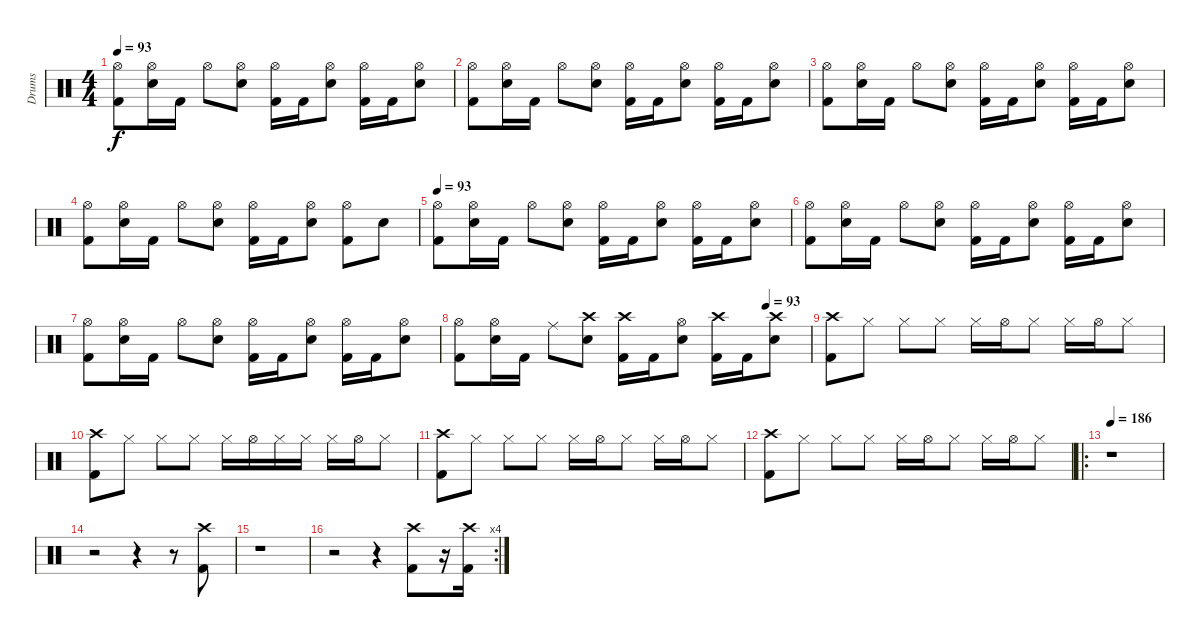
\track ("Drums" "Drums") {instrument percussion}
\staff {score}
\articulation defaults
\ts (4 4)
\tempo 93
\clef neutral
\ks c
("Hi-Hat (open)" "Kick (hit) 2").8{dy f} ("Hi-Hat (open)" "Snare (hit) 2").16 "Kick (hit) 2".16 "Hi-Hat (open)".8 ("Hi-Hat (open)" "Snare (hit) 2").8 ("Hi-Hat (open)" "Kick (hit) 2").16 "Kick (hit) 2".16 ("Hi-Hat (open)" "Snare (hit) 2").8 ("Hi-Hat (open)" "Kick (hit) 2").16 "Kick (hit) 2".16 ("Hi-Hat (open)" "Snare (hit) 2").8 |
("Hi-Hat (open)" "Kick (hit) 2").8 ("Hi-Hat (open)" "Snare (hit) 2").16 "Kick (hit) 2".16 "Hi-Hat (open)".8 ("Hi-Hat (open)" "Snare (hit) 2").8 ("Hi-Hat (open)" "Kick (hit) 2").16 "Kick (hit) 2".16 ("Hi-Hat (open)" "Snare (hit) 2").8 ("Hi-Hat (open)" "Kick (hit) 2").16 "Kick (hit) 2".16 ("Hi-Hat (open)" "Snare (hit) 2").8 |
("Hi-Hat (open)" "Kick (hit) 2").8 ("Hi-Hat (open)" "Snare (hit) 2").16 "Kick (hit) 2".16 "Hi-Hat (open)".8 ("Hi-Hat (open)" "Snare (hit) 2").8 ("Hi-Hat (open)" "Kick (hit) 2").16 "Kick (hit) 2".16 ("Hi-Hat (open)" "Snare (hit) 2").8 ("Hi-Hat (open)" "Kick (hit) 2").16 "Kick (hit) 2".16 ("Hi-Hat (open)" "Snare (hit) 2").8 |
("Hi-Hat (open)" "Kick (hit) 2").8 ("Hi-Hat (open)" "Snare (hit) 2").16 "Kick (hit) 2".16 "Hi-Hat (open)".8 ("Hi-Hat (open)" "Snare (hit) 2").8 ("Hi-Hat (open)" "Kick (hit) 2").16 "Kick (hit) 2".16 ("Hi-Hat (open)" "Snare (hit) 2").8 ("Hi-Hat (open)" "Kick (hit) 2").8 "Snare (hit) 2".8 |
\tempo 93
("Hi-Hat (open)" "Kick (hit) 2").8 ("Hi-Hat (open)" "Snare (hit) 2").16 "Kick (hit) 2".16 "Hi-Hat (open)".8 ("Hi-Hat (open)" "Snare (hit) 2").8 ("Hi-Hat (open)" "Kick (hit) 2").16 "Kick (hit) 2".16 ("Hi-Hat (open)" "Snare (hit) 2").8 ("Hi-Hat (open)" "Kick (hit) 2").16 "Kick (hit) 2".16 ("Hi-Hat (open)" "Snare (hit) 2").8 |
("Hi-Hat (open)" "Kick (hit) 2").8 ("Hi-Hat (open)" "Snare (hit) 2").16 "Kick (hit) 2".16 "Hi-Hat (open)".8 ("Hi-Hat (open)" "Snare (hit) 2").8 ("Hi-Hat (open)" "Kick (hit) 2").16 "Kick (hit) 2".16 ("Hi-Hat (open)" "Snare (hit) 2").8 ("Hi-Hat (open)" "Kick (hit) 2").16 "Kick (hit) 2".16 ("Hi-Hat (open)" "Snare (hit) 2").8 |
("Hi-Hat (open)" "Kick (hit) 2").8 ("Hi-Hat (open)" "Snare (hit) 2").16 "Kick (hit) 2".16 "Hi-Hat (open)".8 ("Hi-Hat (open)" "Snare (hit) 2").8 ("Hi-Hat (open)" "Kick (hit) 2").16 "Kick (hit) 2".16 ("Hi-Hat (open)" "Snare (hit) 2").8 ("Hi-Hat (open)" "Kick (hit) 2").16 "Kick (hit) 2".16 ("Hi-Hat (open)" "Snare (hit) 2").8 |
\tempo (93 0.875)
("Hi-Hat (open)" "Kick (hit) 2").8 ("Hi-Hat (open)" "Snare (hit) 2").16 "Kick (hit) 2".16 "Ride (middle)".8 ("Crash high (hit)" "Snare (hit) 2").8 ("Crash high (hit)" "Kick (hit) 2").16 "Kick (hit) 2".16 ("Hi-Hat (open)" "Snare (hit) 2").8 ("Crash high (hit)" "Kick (hit) 2").16 "Kick (hit) 2".16 ("Crash high (hit)" "Snare (hit) 2").8 |
("Crash high (hit)" "Kick (hit) 2").8 "Hi-Hat (closed)".8 "Hi-Hat (closed)".8 "Hi-Hat (closed)".8 "Hi-Hat (closed)".16 "Hi-Hat (open)".16 "Hi-Hat (closed)".8 "Hi-Hat (closed)".16 "Hi-Hat (open)".16 "Hi-Hat (closed)".8 |
("Crash high (hit)" "Kick (hit) 2").8 "Hi-Hat (closed)".8 "Hi-Hat (closed)".8 "Hi-Hat (closed)".8 "Hi-Hat (closed)".16 "Hi-Hat (open)".16 "Hi-Hat (closed)".16 "Hi-Hat (closed)".16 "Hi-Hat (closed)".16 "Hi-Hat (open)".16 "Hi-Hat (closed)".8 |
("Crash high (hit)" "Kick (hit) 2").8 "Hi-Hat (closed)".8 "Hi-Hat (closed)".8 "Hi-Hat (closed)".8 "Hi-Hat (closed)".16 "Hi-Hat (open)".16 "Hi-Hat (closed)".8 "Hi-Hat (closed)".16 "Hi-Hat (open)".16 "Hi-Hat (closed)".8 |
("Crash high (hit)" "Kick (hit) 2").8 "Hi-Hat (closed)".8 "Hi-Hat (closed)".8 "Hi-Hat (closed)".8 "Hi-Hat (closed)".16 "Hi-Hat (open)".16 "Hi-Hat (closed)".8 "Hi-Hat (closed)".16 "Hi-Hat (open)".16 "Hi-Hat (closed)".8 |
\ro
\tempo 186
r.1 |
r.2 r.4 r.8 ("Crash high (hit)" "Kick (hit) 2").8 |
r.1 |
\rc 4
r.2 r.4 ("Crash high (hit)" "Kick (hit) 2").8 r.16 ("Crash high (hit)" "Kick (hit) 2").16
